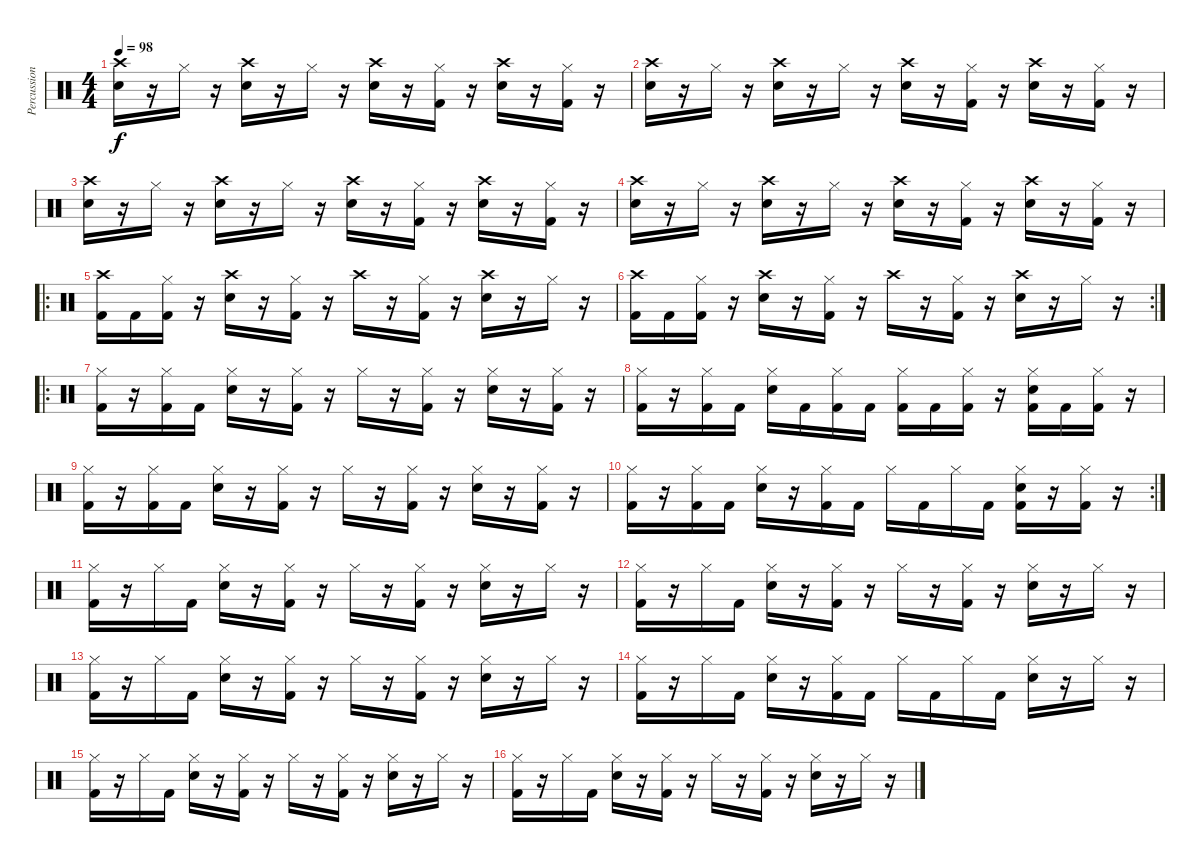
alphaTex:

\track ("Percussion" "Percussion") {instrument percussion}
\staff {score}
\articulation defaults
\ts (4 4)
\tempo 98
\clef neutral
\ks c
("Crash high (hit)" "Snare (hit) 2").16{dy f} r.16 "Hi-Hat (closed)".16 r.16 ("Crash high (hit)" "Snare (hit) 2").16 r.16 "Hi-Hat (closed)".16 r.16 ("Crash high (hit)" "Snare (hit) 2").16 r.16 ("Kick (hit) 2" "Hi-Hat (closed)").16 r.16 ("Crash high (hit)" "Snare (hit) 2").16 r.16 ("Kick (hit) 2" "Hi-Hat (closed)").16 r.16 |
("Crash high (hit)" "Snare (hit) 2").16 r.16 "Hi-Hat (closed)".16 r.16 ("Crash high (hit)" "Snare (hit) 2").16 r.16 "Hi-Hat (closed)".16 r.16 ("Crash high (hit)" "Snare (hit) 2").16 r.16 ("Kick (hit) 2" "Hi-Hat (closed)").16 r.16 ("Crash high (hit)" "Snare (hit) 2").16 r.16 ("Kick (hit) 2" "Hi-Hat (closed)").16 r.16 |
("Crash high (hit)" "Snare (hit) 2").16 r.16 "Hi-Hat (closed)".16 r.16 ("Crash high (hit)" "Snare (hit) 2").16 r.16 "Hi-Hat (closed)".16 r.16 ("Crash high (hit)" "Snare (hit) 2").16 r.16 ("Kick (hit) 2" "Hi-Hat (closed)").16 r.16 ("Crash high (hit)" "Snare (hit) 2").16 r.16 ("Kick (hit) 2" "Hi-Hat (closed)").16 r.16 |
("Crash high (hit)" "Snare (hit) 2").16 r.16 "Hi-Hat (closed)".16 r.16 ("Crash high (hit)" "Snare (hit) 2").16 r.16 "Hi-Hat (closed)".16 r.16 ("Crash high (hit)" "Snare (hit) 2").16 r.16 ("Kick (hit) 2" "Hi-Hat (closed)").16 r.16 ("Crash high (hit)" "Snare (hit) 2").16 r.16 ("Kick (hit) 2" "Hi-Hat (closed)").16 r.16 |
\ro
("Kick (hit) 2" "Crash high (hit)").16 "Kick (hit) 2".16 ("Kick (hit) 2" "Hi-Hat (closed)").16 r.16 ("Crash high (hit)" "Snare (hit) 2").16 r.16 ("Kick (hit) 2" "Hi-Hat (closed)").16 r.16 "Crash high (hit)".16 r.16 ("Kick (hit) 2" "Hi-Hat (closed)").16 r.16 ("Crash high (hit)" "Snare (hit) 2").16 r.16 "Hi-Hat (closed)".16 r.16 |
\rc 2
("Kick (hit) 2" "Crash high (hit)").16 "Kick (hit) 2".16 ("Kick (hit) 2" "Hi-Hat (closed)").16 r.16 ("Crash high (hit)" "Snare (hit) 2").16 r.16 ("Kick (hit) 2" "Hi-Hat (closed)").16 r.16 "Crash high (hit)".16 r.16 ("Kick (hit) 2" "Hi-Hat (closed)").16 r.16 ("Crash high (hit)" "Snare (hit) 2").16 r.16 "Hi-Hat (closed)".16 r.16 |
\ro
("Kick (hit) 2" "Hi-Hat (closed)").16 r.16 ("Kick (hit) 2" "Hi-Hat (closed)").16 "Kick (hit) 2".16 ("Hi-Hat (closed)" "Snare (hit) 2").16 r.16 ("Kick (hit) 2" "Hi-Hat (closed)").16 r.16 "Hi-Hat (closed)".16 r.16 ("Kick (hit) 2" "Hi-Hat (closed)").16 r.16 ("Hi-Hat (closed)" "Snare (hit) 2").16 r.16 ("Kick (hit) 2" "Hi-Hat (closed)").16 r.16 |
("Kick (hit) 2" "Hi-Hat (closed)").16 r.16 ("Kick (hit) 2" "Hi-Hat (closed)").16 "Kick (hit) 2".16 ("Hi-Hat (closed)" "Snare (hit) 2").16 "Kick (hit) 2".16 ("Kick (hit) 2" "Hi-Hat (closed)").16 "Kick (hit) 2".16 ("Kick (hit) 2" "Hi-Hat (closed)").16 "Kick (hit) 2".16 ("Kick (hit) 2" "Hi-Hat (closed)").16 r.16 ("Kick (hit) 2" "Hi-Hat (closed)" "Snare (hit) 2").16 "Kick (hit) 2".16 ("Kick (hit) 2" "Hi-Hat (closed)").16 r.16 |
("Kick (hit) 2" "Hi-Hat (closed)").16 r.16 ("Kick (hit) 2" "Hi-Hat (closed)").16 "Kick (hit) 2".16 ("Hi-Hat (closed)" "Snare (hit) 2").16 r.16 ("Kick (hit) 2" "Hi-Hat (closed)").16 r.16 "Hi-Hat (closed)".16 r.16 ("Kick (hit) 2" "Hi-Hat (closed)").16 r.16 ("Hi-Hat (closed)" "Snare (hit) 2").16 r.16 ("Kick (hit) 2" "Hi-Hat (closed)").16 r.16 |
\rc 2
("Kick (hit) 2" "Hi-Hat (closed)").16 r.16 ("Kick (hit) 2" "Hi-Hat (closed)").16 "Kick (hit) 2".16 ("Hi-Hat (closed)" "Snare (hit) 2").16 r.16 ("Kick (hit) 2" "Hi-Hat (closed)").16 "Kick (hit) 2".16 "Hi-Hat (closed)".16 "Kick (hit) 2".16 "Hi-Hat (closed)".16 "Kick (hit) 2".16 ("Kick (hit) 2" "Hi-Hat (closed)" "Snare (hit) 2").16 r.16 ("Kick (hit) 2" "Hi-Hat (closed)").16 r.16 |
("Kick (hit) 2" "Hi-Hat (closed)").16 r.16 "Hi-Hat (closed)".16 "Kick (hit) 2".16 ("Hi-Hat (closed)" "Snare (hit) 2").16 r.16 ("Kick (hit) 2" "Hi-Hat (closed)").16 r.16 "Hi-Hat (closed)".16 r.16 ("Kick (hit) 2" "Hi-Hat (closed)").16 r.16 ("Hi-Hat (closed)" "Snare (hit) 2").16 r.16 "Hi-Hat (closed)".16 r.16 |
("Kick (hit) 2" "Hi-Hat (closed)").16 r.16 "Hi-Hat (closed)".16 "Kick (hit) 2".16 ("Hi-Hat (closed)" "Snare (hit) 2").16 r.16 ("Kick (hit) 2" "Hi-Hat (closed)").16 r.16 "Hi-Hat (closed)".16 r.16 ("Kick (hit) 2" "Hi-Hat (closed)").16 r.16 ("Hi-Hat (closed)" "Snare (hit) 2").16 r.16 "Hi-Hat (closed)".16 r.16 |
("Kick (hit) 2" "Hi-Hat (closed)").16 r.16 "Hi-Hat (closed)".16 "Kick (hit) 2".16 ("Hi-Hat (closed)" "Snare (hit) 2").16 r.16 ("Kick (hit) 2" "Hi-Hat (closed)").16 r.16 "Hi-Hat (closed)".16 r.16 ("Kick (hit) 2" "Hi-Hat (closed)").16 r.16 ("Hi-Hat (closed)" "Snare (hit) 2").16 r.16 "Hi-Hat (closed)".16 r.16 |
("Kick (hit) 2" "Hi-Hat (closed)").16 r.16 "Hi-Hat (closed)".16 "Kick (hit) 2".16 ("Hi-Hat (closed)" "Snare (hit) 2").16 r.16 ("Kick (hit) 2" "Hi-Hat (closed)").16 "Kick (hit) 2".16 "Hi-Hat (closed)".16 "Kick (hit) 2".16 "Hi-Hat (closed)".16 "Kick (hit) 2".16 ("Hi-Hat (closed)" "Snare (hit) 2").16 r.16 "Hi-Hat (closed)".16 r.16 |
("Kick (hit) 2" "Hi-Hat (closed)").16 r.16 "Hi-Hat (closed)".16 "Kick (hit) 2".16 ("Hi-Hat (closed)" "Snare (hit) 2").16 r.16 ("Kick (hit) 2" "Hi-Hat (closed)").16 r.16 "Hi-Hat (closed)".16 r.16 ("Kick (hit) 2" "Hi-Hat (closed)").16 r.16 ("Hi-Hat (closed)" "Snare (hit) 2").16 r.16 "Hi-Hat (closed)".16 r.16 |
("Kick (hit) 2" "Hi-Hat (closed)").16 r.16 "Hi-Hat (closed)".16 "Kick (hit) 2".16 ("Hi-Hat (closed)" "Snare (hit) 2").16 r.16 ("Kick (hit) 2" "Hi-Hat (closed)").16 r.16 "Hi-Hat (closed)".16 r.16 ("Kick (hit) 2" "Hi-Hat (closed)").16 r.16 ("Hi-Hat (closed)" "Snare (hit) 2").16 r.16 "Hi-Hat (closed)".16 r.16
